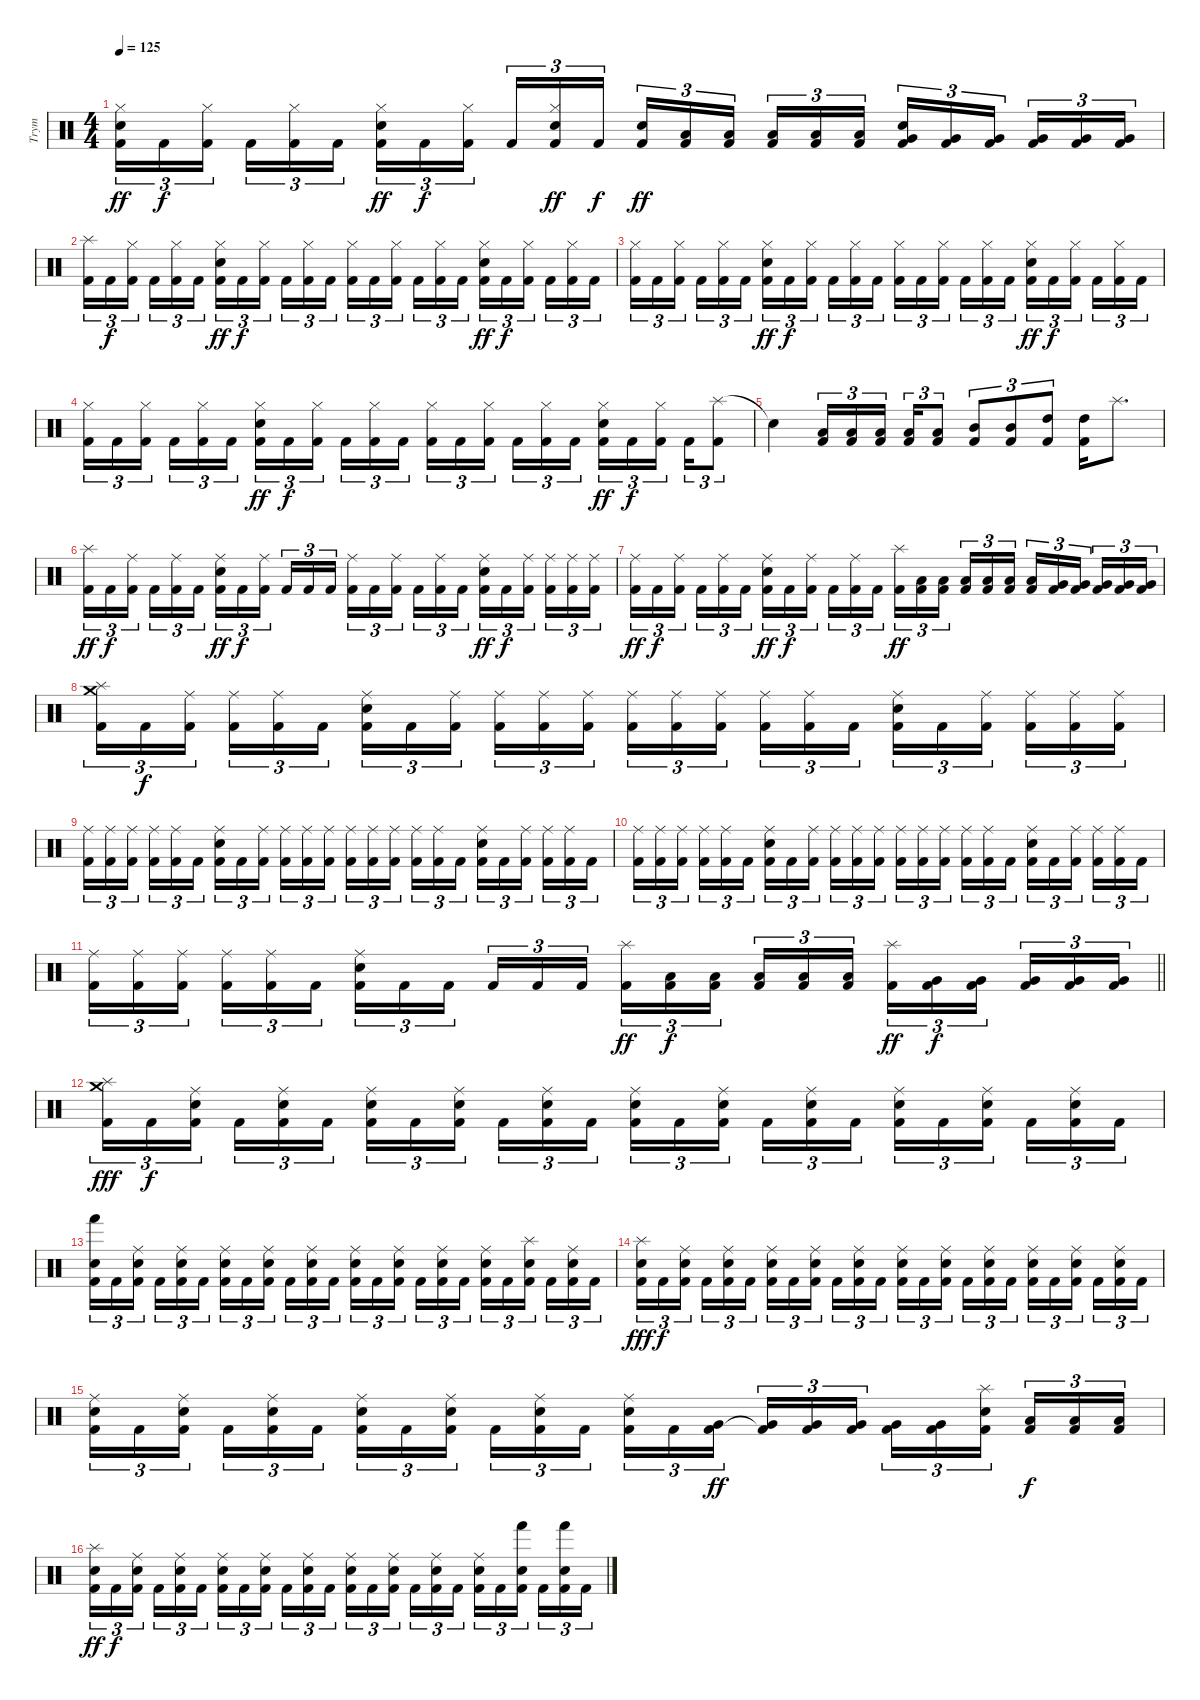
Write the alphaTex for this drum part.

\track ("Trym" "Trym") {instrument percussion}
\staff {score}
\articulation defaults
\ts (4 4)
\tempo 125
\clef neutral
\ks c
("Snare (hit) 2" "Hi-Hat (closed)" "Kick (hit) 2").16{tu (3 2) dy ff} "Kick (hit) 2".16{tu (3 2) dy f} ("Hi-Hat (closed)" "Kick (hit) 2").16{tu (3 2) beam splitsecondary} "Kick (hit) 2".16{tu (3 2)} ("Hi-Hat (closed)" "Kick (hit) 2").16{tu (3 2)} "Kick (hit) 2".16{tu (3 2)} ("Snare (hit) 2" "Hi-Hat (closed)" "Kick (hit) 2").16{tu (3 2) dy ff} "Kick (hit) 2".16{tu (3 2) dy f} ("Hi-Hat (closed)" "Kick (hit) 2").16{tu (3 2) beam splitsecondary} "Kick (hit) 2".16{tu (3 2)} ("Snare (hit) 2" "Hi-Hat (closed)" "Kick (hit) 2").16{tu (3 2) dy ff} "Kick (hit) 2".16{tu (3 2) dy f} ("Snare (hit) 2" "Kick (hit) 2").16{tu (3 2) dy ff} ("Low Tom (hit)" "Kick (hit) 2").16{tu (3 2)} ("Low Tom (hit)" "Kick (hit) 2").16{tu (3 2) beam splitsecondary} ("Low Tom (hit)" "Kick (hit) 2").16{tu (3 2)} ("Low Tom (hit)" "Kick (hit) 2").16{tu (3 2)} ("Low Tom (hit)" "Kick (hit) 2").16{tu (3 2)} ("Snare (hit) 2" "Very Low Tom (hit)" "Kick (hit) 2").16{tu (3 2)} ("Very Low Tom (hit)" "Kick (hit) 2").16{tu (3 2)} ("Very Low Tom (hit)" "Kick (hit) 2").16{tu (3 2) beam splitsecondary} ("Very Low Tom (hit)" "Kick (hit) 2").16{tu (3 2)} ("Very Low Tom (hit)" "Kick (hit) 2").16{tu (3 2)} ("Very Low Tom (hit)" "Kick (hit) 2").16{tu (3 2)} |
("Splash (hit)" "Kick (hit) 2").16{tu (3 2)} "Kick (hit) 2".16{tu (3 2) dy f} ("Hi-Hat (closed)" "Kick (hit) 2").16{tu (3 2) beam splitsecondary} "Kick (hit) 2".16{tu (3 2)} ("Hi-Hat (closed)" "Kick (hit) 2").16{tu (3 2)} "Kick (hit) 2".16{tu (3 2)} ("Snare (hit) 2" "Hi-Hat (closed)" "Kick (hit) 2").16{tu (3 2) dy ff} "Kick (hit) 2".16{tu (3 2) dy f} ("Hi-Hat (closed)" "Kick (hit) 2").16{tu (3 2) beam splitsecondary} "Kick (hit) 2".16{tu (3 2)} ("Hi-Hat (closed)" "Kick (hit) 2").16{tu (3 2)} "Kick (hit) 2".16{tu (3 2)} ("Hi-Hat (closed)" "Kick (hit) 2").16{tu (3 2)} "Kick (hit) 2".16{tu (3 2)} ("Hi-Hat (closed)" "Kick (hit) 2").16{tu (3 2) beam splitsecondary} "Kick (hit) 2".16{tu (3 2)} ("Hi-Hat (closed)" "Kick (hit) 2").16{tu (3 2)} "Kick (hit) 2".16{tu (3 2)} ("Snare (hit) 2" "Hi-Hat (closed)" "Kick (hit) 2").16{tu (3 2) dy ff} "Kick (hit) 2".16{tu (3 2) dy f} ("Hi-Hat (closed)" "Kick (hit) 2").16{tu (3 2) beam splitsecondary} "Kick (hit) 2".16{tu (3 2)} ("Hi-Hat (closed)" "Kick (hit) 2").16{tu (3 2)} "Kick (hit) 2".16{tu (3 2)} |
("Hi-Hat (closed)" "Kick (hit) 2").16{tu (3 2)} "Kick (hit) 2".16{tu (3 2)} ("Hi-Hat (closed)" "Kick (hit) 2").16{tu (3 2) beam splitsecondary} "Kick (hit) 2".16{tu (3 2)} ("Hi-Hat (closed)" "Kick (hit) 2").16{tu (3 2)} "Kick (hit) 2".16{tu (3 2)} ("Snare (hit) 2" "Hi-Hat (closed)" "Kick (hit) 2").16{tu (3 2) dy ff} "Kick (hit) 2".16{tu (3 2) dy f} ("Hi-Hat (closed)" "Kick (hit) 2").16{tu (3 2) beam splitsecondary} "Kick (hit) 2".16{tu (3 2)} ("Hi-Hat (closed)" "Kick (hit) 2").16{tu (3 2)} "Kick (hit) 2".16{tu (3 2)} ("Hi-Hat (closed)" "Kick (hit) 2").16{tu (3 2)} "Kick (hit) 2".16{tu (3 2)} ("Hi-Hat (closed)" "Kick (hit) 2").16{tu (3 2) beam splitsecondary} "Kick (hit) 2".16{tu (3 2)} ("Hi-Hat (closed)" "Kick (hit) 2").16{tu (3 2)} "Kick (hit) 2".16{tu (3 2)} ("Snare (hit) 2" "Hi-Hat (closed)" "Kick (hit) 2").16{tu (3 2) dy ff} "Kick (hit) 2".16{tu (3 2) dy f} ("Hi-Hat (closed)" "Kick (hit) 2").16{tu (3 2) beam splitsecondary} "Kick (hit) 2".16{tu (3 2)} ("Hi-Hat (closed)" "Kick (hit) 2").16{tu (3 2)} "Kick (hit) 2".16{tu (3 2)} |
("Hi-Hat (closed)" "Kick (hit) 2").16{tu (3 2)} "Kick (hit) 2".16{tu (3 2)} ("Hi-Hat (closed)" "Kick (hit) 2").16{tu (3 2) beam splitsecondary} "Kick (hit) 2".16{tu (3 2)} ("Hi-Hat (closed)" "Kick (hit) 2").16{tu (3 2)} "Kick (hit) 2".16{tu (3 2)} ("Snare (hit) 2" "Hi-Hat (closed)" "Kick (hit) 2").16{tu (3 2) dy ff} "Kick (hit) 2".16{tu (3 2) dy f} ("Hi-Hat (closed)" "Kick (hit) 2").16{tu (3 2) beam splitsecondary} "Kick (hit) 2".16{tu (3 2)} ("Hi-Hat (closed)" "Kick (hit) 2").16{tu (3 2)} "Kick (hit) 2".16{tu (3 2)} ("Hi-Hat (closed)" "Kick (hit) 2").16{tu (3 2)} "Kick (hit) 2".16{tu (3 2)} ("Hi-Hat (closed)" "Kick (hit) 2").16{tu (3 2) beam splitsecondary} "Kick (hit) 2".16{tu (3 2)} ("Hi-Hat (closed)" "Kick (hit) 2").16{tu (3 2)} "Kick (hit) 2".16{tu (3 2)} ("Snare (hit) 2" "Hi-Hat (closed)" "Kick (hit) 2").16{tu (3 2) dy ff} "Kick (hit) 2".16{tu (3 2) dy f} ("Hi-Hat (closed)" "Kick (hit) 2").16{tu (3 2) beam splitsecondary} "Kick (hit) 2".16{tu (3 2)} ("Splash (hit)" "Kick (hit) 2").8{tu (3 2)} |
"Snare (hit)"{t}.4 ("Low Tom (hit)" "Kick (hit) 2").16{tu (3 2)} ("Low Tom (hit)" "Kick (hit) 2").16{tu (3 2)} ("Low Tom (hit)" "Kick (hit) 2").16{tu (3 2) beam splitsecondary} ("Low Tom (hit)" "Kick (hit) 2").16{tu (3 2)} ("Low Tom (hit)" "Kick (hit) 2").8{tu (3 2)} ("Mid Tom (hit)" "Kick (hit) 2").8{tu (3 2)} ("Mid Tom (hit)" "Kick (hit) 2").8{tu (3 2)} ("High Tom (hit)" "Kick (hit) 2").8{tu (3 2)} ("High Tom (hit)" "Kick (hit) 2").16 "Splash (hit)".8{d} |
("Splash (hit)" "Kick (hit) 2").16{tu (3 2) dy ff} "Kick (hit) 2".16{tu (3 2) dy f} ("Ride (middle)" "Kick (hit) 2").16{tu (3 2) beam splitsecondary} "Kick (hit) 2".16{tu (3 2)} ("Ride (middle)" "Kick (hit) 2").16{tu (3 2)} "Kick (hit) 2".16{tu (3 2)} ("Snare (hit) 2" "Ride (middle)" "Kick (hit) 2").16{tu (3 2) dy ff} "Kick (hit) 2".16{tu (3 2) dy f} ("Ride (middle)" "Kick (hit) 2").16{tu (3 2) beam splitsecondary} "Kick (hit) 2".16{tu (3 2)} "Kick (hit) 2".16{tu (3 2)} "Kick (hit) 2".16{tu (3 2)} ("Ride (middle)" "Kick (hit) 2").16{tu (3 2)} "Kick (hit) 2".16{tu (3 2)} ("Ride (middle)" "Kick (hit) 2").16{tu (3 2) beam splitsecondary} "Kick (hit) 2".16{tu (3 2)} ("Ride (middle)" "Kick (hit) 2").16{tu (3 2)} "Kick (hit) 2".16{tu (3 2)} ("Snare (hit) 2" "Ride (middle)" "Kick (hit) 2").16{tu (3 2) dy ff} "Kick (hit) 2".16{tu (3 2) dy f} ("Ride (middle)" "Kick (hit) 2").16{tu (3 2) beam splitsecondary} ("Ride (middle)" "Kick (hit) 2").16{tu (3 2)} ("Ride (middle)" "Kick (hit) 2").16{tu (3 2)} ("Ride (middle)" "Kick (hit) 2").16{tu (3 2)} |
("Ride (middle)" "Kick (hit) 2").16{tu (3 2) dy ff} "Kick (hit) 2".16{tu (3 2) dy f} ("Ride (middle)" "Kick (hit) 2").16{tu (3 2) beam splitsecondary} "Kick (hit) 2".16{tu (3 2)} ("Ride (middle)" "Kick (hit) 2").16{tu (3 2)} "Kick (hit) 2".16{tu (3 2)} ("Snare (hit) 2" "Ride (middle)" "Kick (hit) 2").16{tu (3 2) dy ff} "Kick (hit) 2".16{tu (3 2) dy f} ("Ride (middle)" "Kick (hit) 2").16{tu (3 2) beam splitsecondary} "Kick (hit) 2".16{tu (3 2)} ("Ride (middle)" "Kick (hit) 2").16{tu (3 2)} "Kick (hit) 2".16{tu (3 2)} ("Splash (hit)" "Kick (hit) 2").16{tu (3 2) dy ff} ("Low Tom (hit)" "Kick (hit) 2").16{tu (3 2)} ("Low Tom (hit)" "Kick (hit) 2").16{tu (3 2) beam splitsecondary} ("Low Tom (hit)" "Kick (hit) 2").16{tu (3 2)} ("Low Tom (hit)" "Kick (hit) 2").16{tu (3 2)} ("Low Tom (hit)" "Kick (hit) 2").16{tu (3 2)} ("Low Tom (hit)" "Kick (hit) 2").16{tu (3 2)} ("Very Low Tom (hit)" "Kick (hit) 2").16{tu (3 2)} ("Very Low Tom (hit)" "Kick (hit) 2").16{tu (3 2) beam splitsecondary} ("Very Low Tom (hit)" "Kick (hit) 2").16{tu (3 2)} ("Very Low Tom (hit)" "Kick (hit) 2").16{tu (3 2)} ("Very Low Tom (hit)" "Kick (hit) 2").16{tu (3 2)} |
("Crash medium (hit)" "Splash (hit)" "Kick (hit) 2").16{tu (3 2)} "Kick (hit) 2".16{tu (3 2) dy f} ("Ride (middle)" "Kick (hit) 2").16{tu (3 2) beam splitsecondary} ("Ride (middle)" "Kick (hit) 2").16{tu (3 2)} ("Ride (middle)" "Kick (hit) 2").16{tu (3 2)} "Kick (hit) 2".16{tu (3 2)} ("Snare (hit) 2" "Ride (middle)" "Kick (hit) 2").16{tu (3 2)} "Kick (hit) 2".16{tu (3 2)} ("Ride (middle)" "Kick (hit) 2").16{tu (3 2) beam splitsecondary} ("Ride (middle)" "Kick (hit) 2").16{tu (3 2)} ("Ride (middle)" "Kick (hit) 2").16{tu (3 2)} ("Ride (middle)" "Kick (hit) 2").16{tu (3 2)} ("Ride (middle)" "Kick (hit) 2").16{tu (3 2)} ("Ride (middle)" "Kick (hit) 2").16{tu (3 2)} ("Ride (middle)" "Kick (hit) 2").16{tu (3 2) beam splitsecondary} ("Ride (middle)" "Kick (hit) 2").16{tu (3 2)} ("Ride (middle)" "Kick (hit) 2").16{tu (3 2)} "Kick (hit) 2".16{tu (3 2)} ("Snare (hit) 2" "Ride (middle)" "Kick (hit) 2").16{tu (3 2)} "Kick (hit) 2".16{tu (3 2)} ("Ride (middle)" "Kick (hit) 2").16{tu (3 2) beam splitsecondary} ("Ride (middle)" "Kick (hit) 2").16{tu (3 2)} ("Ride (middle)" "Kick (hit) 2").16{tu (3 2)} ("Ride (middle)" "Kick (hit) 2").16{tu (3 2)} |
("Ride (middle)" "Kick (hit) 2").16{tu (3 2)} ("Ride (middle)" "Kick (hit) 2").16{tu (3 2)} ("Ride (middle)" "Kick (hit) 2").16{tu (3 2) beam splitsecondary} ("Ride (middle)" "Kick (hit) 2").16{tu (3 2)} ("Ride (middle)" "Kick (hit) 2").16{tu (3 2)} "Kick (hit) 2".16{tu (3 2)} ("Snare (hit) 2" "Ride (middle)" "Kick (hit) 2").16{tu (3 2)} "Kick (hit) 2".16{tu (3 2)} ("Ride (middle)" "Kick (hit) 2").16{tu (3 2) beam splitsecondary} ("Ride (middle)" "Kick (hit) 2").16{tu (3 2)} ("Ride (middle)" "Kick (hit) 2").16{tu (3 2)} ("Ride (middle)" "Kick (hit) 2").16{tu (3 2)} ("Ride (middle)" "Kick (hit) 2").16{tu (3 2)} ("Ride (middle)" "Kick (hit) 2").16{tu (3 2)} ("Ride (middle)" "Kick (hit) 2").16{tu (3 2) beam splitsecondary} ("Ride (middle)" "Kick (hit) 2").16{tu (3 2)} ("Ride (middle)" "Kick (hit) 2").16{tu (3 2)} "Kick (hit) 2".16{tu (3 2)} ("Snare (hit) 2" "Ride (middle)" "Kick (hit) 2").16{tu (3 2)} "Kick (hit) 2".16{tu (3 2)} ("Ride (middle)" "Kick (hit) 2").16{tu (3 2) beam splitsecondary} ("Ride (middle)" "Kick (hit) 2").16{tu (3 2)} ("Ride (middle)" "Kick (hit) 2").16{tu (3 2)} "Kick (hit) 2".16{tu (3 2)} |
("Ride (middle)" "Kick (hit) 2").16{tu (3 2)} ("Ride (middle)" "Kick (hit) 2").16{tu (3 2)} ("Ride (middle)" "Kick (hit) 2").16{tu (3 2) beam splitsecondary} ("Ride (middle)" "Kick (hit) 2").16{tu (3 2)} ("Ride (middle)" "Kick (hit) 2").16{tu (3 2)} "Kick (hit) 2".16{tu (3 2)} ("Snare (hit) 2" "Ride (middle)" "Kick (hit) 2").16{tu (3 2)} "Kick (hit) 2".16{tu (3 2)} ("Ride (middle)" "Kick (hit) 2").16{tu (3 2) beam splitsecondary} ("Ride (middle)" "Kick (hit) 2").16{tu (3 2)} ("Ride (middle)" "Kick (hit) 2").16{tu (3 2)} ("Ride (middle)" "Kick (hit) 2").16{tu (3 2)} ("Ride (middle)" "Kick (hit) 2").16{tu (3 2)} ("Ride (middle)" "Kick (hit) 2").16{tu (3 2)} ("Ride (middle)" "Kick (hit) 2").16{tu (3 2) beam splitsecondary} ("Ride (middle)" "Kick (hit) 2").16{tu (3 2)} ("Ride (middle)" "Kick (hit) 2").16{tu (3 2)} "Kick (hit) 2".16{tu (3 2)} ("Snare (hit) 2" "Ride (middle)" "Kick (hit) 2").16{tu (3 2)} "Kick (hit) 2".16{tu (3 2)} ("Ride (middle)" "Kick (hit) 2").16{tu (3 2) beam splitsecondary} ("Ride (middle)" "Kick (hit) 2").16{tu (3 2)} ("Ride (middle)" "Kick (hit) 2").16{tu (3 2)} "Kick (hit) 2".16{tu (3 2)} |
\barLineRight lightlight
("Ride (middle)" "Kick (hit) 2").16{tu (3 2)} ("Ride (middle)" "Kick (hit) 2").16{tu (3 2)} ("Ride (middle)" "Kick (hit) 2").16{tu (3 2) beam splitsecondary} ("Ride (middle)" "Kick (hit) 2").16{tu (3 2)} ("Ride (middle)" "Kick (hit) 2").16{tu (3 2)} "Kick (hit) 2".16{tu (3 2)} ("Snare (hit) 2" "Ride (middle)" "Kick (hit) 2").16{tu (3 2)} "Kick (hit) 2".16{tu (3 2)} "Kick (hit) 2".16{tu (3 2) beam splitsecondary} "Kick (hit) 2".16{tu (3 2)} "Kick (hit) 2".16{tu (3 2)} "Kick (hit) 2".16{tu (3 2)} ("Splash (hit)" "Kick (hit) 2").16{tu (3 2) dy ff} ("Low Tom (hit)" "Kick (hit) 2").16{tu (3 2) dy f} ("Low Tom (hit)" "Kick (hit) 2").16{tu (3 2) beam splitsecondary} ("Low Tom (hit)" "Kick (hit) 2").16{tu (3 2)} ("Low Tom (hit)" "Kick (hit) 2").16{tu (3 2)} ("Low Tom (hit)" "Kick (hit) 2").16{tu (3 2)} ("Splash (hit)" "Kick (hit) 2").16{tu (3 2) dy ff} ("Very Low Tom (hit)" "Kick (hit) 2").16{tu (3 2) dy f} ("Very Low Tom (hit)" "Kick (hit) 2").16{tu (3 2) beam splitsecondary} ("Very Low Tom (hit)" "Kick (hit) 2").16{tu (3 2)} ("Very Low Tom (hit)" "Kick (hit) 2").16{tu (3 2)} ("Very Low Tom (hit)" "Kick (hit) 2").16{tu (3 2)} |
("Crash medium (hit)" "Splash (hit)" "Kick (hit) 2").16{tu (3 2) dy fff} "Kick (hit) 2".16{tu (3 2) dy f} ("Snare (hit) 2" "Ride (middle)" "Kick (hit) 2").16{tu (3 2) beam splitsecondary} "Kick (hit) 2".16{tu (3 2)} ("Snare (hit) 2" "Ride (middle)" "Kick (hit) 2").16{tu (3 2)} "Kick (hit) 2".16{tu (3 2)} ("Snare (hit) 2" "Ride (middle)" "Kick (hit) 2").16{tu (3 2)} "Kick (hit) 2".16{tu (3 2)} ("Snare (hit) 2" "Ride (middle)" "Kick (hit) 2").16{tu (3 2) beam splitsecondary} "Kick (hit) 2".16{tu (3 2)} ("Snare (hit) 2" "Ride (middle)" "Kick (hit) 2").16{tu (3 2)} "Kick (hit) 2".16{tu (3 2)} ("Snare (hit) 2" "Ride (middle)" "Kick (hit) 2").16{tu (3 2)} "Kick (hit) 2".16{tu (3 2)} ("Snare (hit) 2" "Ride (middle)" "Kick (hit) 2").16{tu (3 2) beam splitsecondary} "Kick (hit) 2".16{tu (3 2)} ("Snare (hit) 2" "Ride (middle)" "Kick (hit) 2").16{tu (3 2)} "Kick (hit) 2".16{tu (3 2)} ("Snare (hit) 2" "Ride (middle)" "Kick (hit) 2").16{tu (3 2)} "Kick (hit) 2".16{tu (3 2)} ("Snare (hit) 2" "Ride (middle)" "Kick (hit) 2").16{tu (3 2) beam splitsecondary} "Kick (hit) 2".16{tu (3 2)} ("Snare (hit) 2" "Ride (middle)" "Kick (hit) 2").16{tu (3 2)} "Kick (hit) 2".16{tu (3 2)} |
("Snare (hit) 2" "Hand (hit)" "Kick (hit) 2").16{tu (3 2)} "Kick (hit) 2".16{tu (3 2)} ("Snare (hit) 2" "Ride (middle)" "Kick (hit) 2").16{tu (3 2) beam splitsecondary} "Kick (hit) 2".16{tu (3 2)} ("Snare (hit) 2" "Ride (middle)" "Kick (hit) 2").16{tu (3 2)} "Kick (hit) 2".16{tu (3 2)} ("Snare (hit) 2" "Ride (middle)" "Kick (hit) 2").16{tu (3 2)} "Kick (hit) 2".16{tu (3 2)} ("Snare (hit) 2" "Ride (middle)" "Kick (hit) 2").16{tu (3 2) beam splitsecondary} "Kick (hit) 2".16{tu (3 2)} ("Snare (hit) 2" "Ride (middle)" "Kick (hit) 2").16{tu (3 2)} "Kick (hit) 2".16{tu (3 2)} ("Snare (hit) 2" "Ride (middle)" "Kick (hit) 2").16{tu (3 2)} "Kick (hit) 2".16{tu (3 2)} ("Snare (hit) 2" "Ride (middle)" "Kick (hit) 2").16{tu (3 2) beam splitsecondary} "Kick (hit) 2".16{tu (3 2)} ("Snare (hit) 2" "Ride (middle)" "Kick (hit) 2").16{tu (3 2)} "Kick (hit) 2".16{tu (3 2)} ("Snare (hit) 2" "Ride (middle)" "Kick (hit) 2").16{tu (3 2)} "Kick (hit) 2".16{tu (3 2)} ("Snare (hit) 2" "Splash (hit)" "Kick (hit) 2").16{tu (3 2) beam splitsecondary} "Kick (hit) 2".16{tu (3 2)} ("Snare (hit) 2" "Ride (middle)" "Kick (hit) 2").16{tu (3 2)} "Kick (hit) 2".16{tu (3 2)} |
("Snare (hit) 2" "Splash (hit)" "Kick (hit) 2").16{tu (3 2) dy fff} "Kick (hit) 2".16{tu (3 2) dy f} ("Snare (hit) 2" "Ride (middle)" "Kick (hit) 2").16{tu (3 2) beam splitsecondary} "Kick (hit) 2".16{tu (3 2)} ("Snare (hit) 2" "Ride (middle)" "Kick (hit) 2").16{tu (3 2)} "Kick (hit) 2".16{tu (3 2)} ("Snare (hit) 2" "Ride (middle)" "Kick (hit) 2").16{tu (3 2)} "Kick (hit) 2".16{tu (3 2)} ("Snare (hit) 2" "Ride (middle)" "Kick (hit) 2").16{tu (3 2) beam splitsecondary} "Kick (hit) 2".16{tu (3 2)} ("Snare (hit) 2" "Ride (middle)" "Kick (hit) 2").16{tu (3 2)} "Kick (hit) 2".16{tu (3 2)} ("Snare (hit) 2" "Ride (middle)" "Kick (hit) 2").16{tu (3 2)} "Kick (hit) 2".16{tu (3 2)} ("Snare (hit) 2" "Ride (middle)" "Kick (hit) 2").16{tu (3 2) beam splitsecondary} "Kick (hit) 2".16{tu (3 2)} ("Snare (hit) 2" "Ride (middle)" "Kick (hit) 2").16{tu (3 2)} "Kick (hit) 2".16{tu (3 2)} ("Snare (hit) 2" "Ride (middle)" "Kick (hit) 2").16{tu (3 2)} "Kick (hit) 2".16{tu (3 2)} ("Snare (hit) 2" "Ride (middle)" "Kick (hit) 2").16{tu (3 2) beam splitsecondary} "Kick (hit) 2".16{tu (3 2)} ("Snare (hit) 2" "Ride (middle)" "Kick (hit) 2").16{tu (3 2)} "Kick (hit) 2".16{tu (3 2)} |
("Snare (hit) 2" "Ride (middle)" "Kick (hit) 2").16{tu (3 2)} "Kick (hit) 2".16{tu (3 2)} ("Snare (hit) 2" "Ride (middle)" "Kick (hit) 2").16{tu (3 2) beam splitsecondary} "Kick (hit) 2".16{tu (3 2)} ("Snare (hit) 2" "Ride (middle)" "Kick (hit) 2").16{tu (3 2)} "Kick (hit) 2".16{tu (3 2)} ("Snare (hit) 2" "Ride (middle)" "Kick (hit) 2").16{tu (3 2)} "Kick (hit) 2".16{tu (3 2)} ("Snare (hit) 2" "Ride (middle)" "Kick (hit) 2").16{tu (3 2) beam splitsecondary} "Kick (hit) 2".16{tu (3 2)} ("Snare (hit) 2" "Ride (middle)" "Kick (hit) 2").16{tu (3 2)} "Kick (hit) 2".16{tu (3 2)} ("Snare (hit) 2" "Ride (middle)" "Kick (hit) 2").16{tu (3 2)} "Kick (hit) 2".16{tu (3 2)} ("Very Low Tom (hit)" "Kick (hit) 2").16{tu (3 2) dy ff beam splitsecondary} ("Very Low Tom (hit)" "Kick (hit) 2"{t}).16{tu (3 2)} ("Very Low Tom (hit)" "Kick (hit) 2").16{tu (3 2)} ("Very Low Tom (hit)" "Kick (hit) 2").16{tu (3 2)} ("Very Low Tom (hit)" "Kick (hit) 2").16{tu (3 2)} ("Very Low Tom (hit)" "Kick (hit) 2").16{tu (3 2)} ("Splash (hit)" "Snare (hit) 2" "Kick (hit) 2").16{tu (3 2) beam splitsecondary} ("Low Tom (hit)" "Kick (hit) 2").16{tu (3 2) dy f} ("Low Tom (hit)" "Kick (hit) 2").16{tu (3 2)} ("Low Tom (hit)" "Kick (hit) 2").16{tu (3 2)} |
("Snare (hit) 2" "Splash (hit)" "Kick (hit) 2").16{tu (3 2) dy ff} "Kick (hit) 2".16{tu (3 2) dy f} ("Snare (hit) 2" "Ride (middle)" "Kick (hit) 2").16{tu (3 2) beam splitsecondary} "Kick (hit) 2".16{tu (3 2)} ("Snare (hit) 2" "Ride (middle)" "Kick (hit) 2").16{tu (3 2)} "Kick (hit) 2".16{tu (3 2)} ("Snare (hit) 2" "Ride (middle)" "Kick (hit) 2").16{tu (3 2)} "Kick (hit) 2".16{tu (3 2)} ("Snare (hit) 2" "Ride (middle)" "Kick (hit) 2").16{tu (3 2) beam splitsecondary} "Kick (hit) 2".16{tu (3 2)} ("Snare (hit) 2" "Ride (middle)" "Kick (hit) 2").16{tu (3 2)} "Kick (hit) 2".16{tu (3 2)} ("Snare (hit) 2" "Ride (middle)" "Kick (hit) 2").16{tu (3 2)} "Kick (hit) 2".16{tu (3 2)} ("Snare (hit) 2" "Ride (middle)" "Kick (hit) 2").16{tu (3 2) beam splitsecondary} "Kick (hit) 2".16{tu (3 2)} ("Snare (hit) 2" "Ride (middle)" "Kick (hit) 2").16{tu (3 2)} "Kick (hit) 2".16{tu (3 2)} ("Snare (hit) 2" "Ride (middle)" "Kick (hit) 2").16{tu (3 2)} "Kick (hit) 2".16{tu (3 2)} ("Snare (hit) 2" "Hand (hit)" "Kick (hit) 2").16{tu (3 2) beam splitsecondary} "Kick (hit) 2".16{tu (3 2)} ("Snare (hit) 2" "Hand (hit)" "Kick (hit) 2").16{tu (3 2)} "Kick (hit) 2".16{tu (3 2)}
